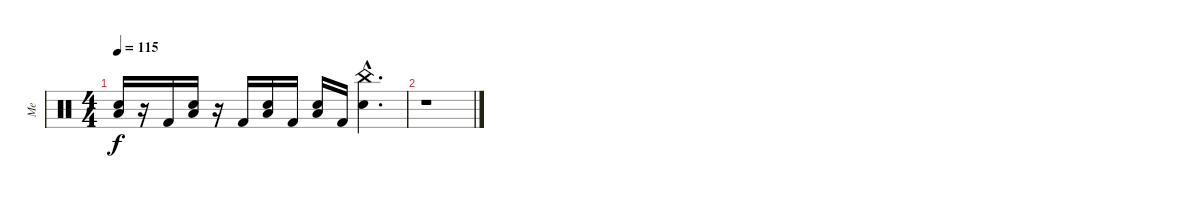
\track ("Me" "Me") {instrument percussion}
\staff {score}
\articulation defaults
\ts (4 4)
\section ("" "")
\tempo 115
\clef neutral
\ks c
("Electric Snare (hit)" "Low Tom (hit)").16{dy f} r.16 "Kick (hit) 2".16 ("Electric Snare (hit)" "Low Tom (hit)").16 r.16 "Kick (hit) 2".16 ("Electric Snare (hit)" "Low Tom (hit)").16 "Kick (hit) 2".16 ("Electric Snare (hit)" "Low Tom (hit)").16 "Kick (hit) 2".16 ("China (hit)"{hac} "Electric Snare (hit)"{hac}).4{d} |
r.1
